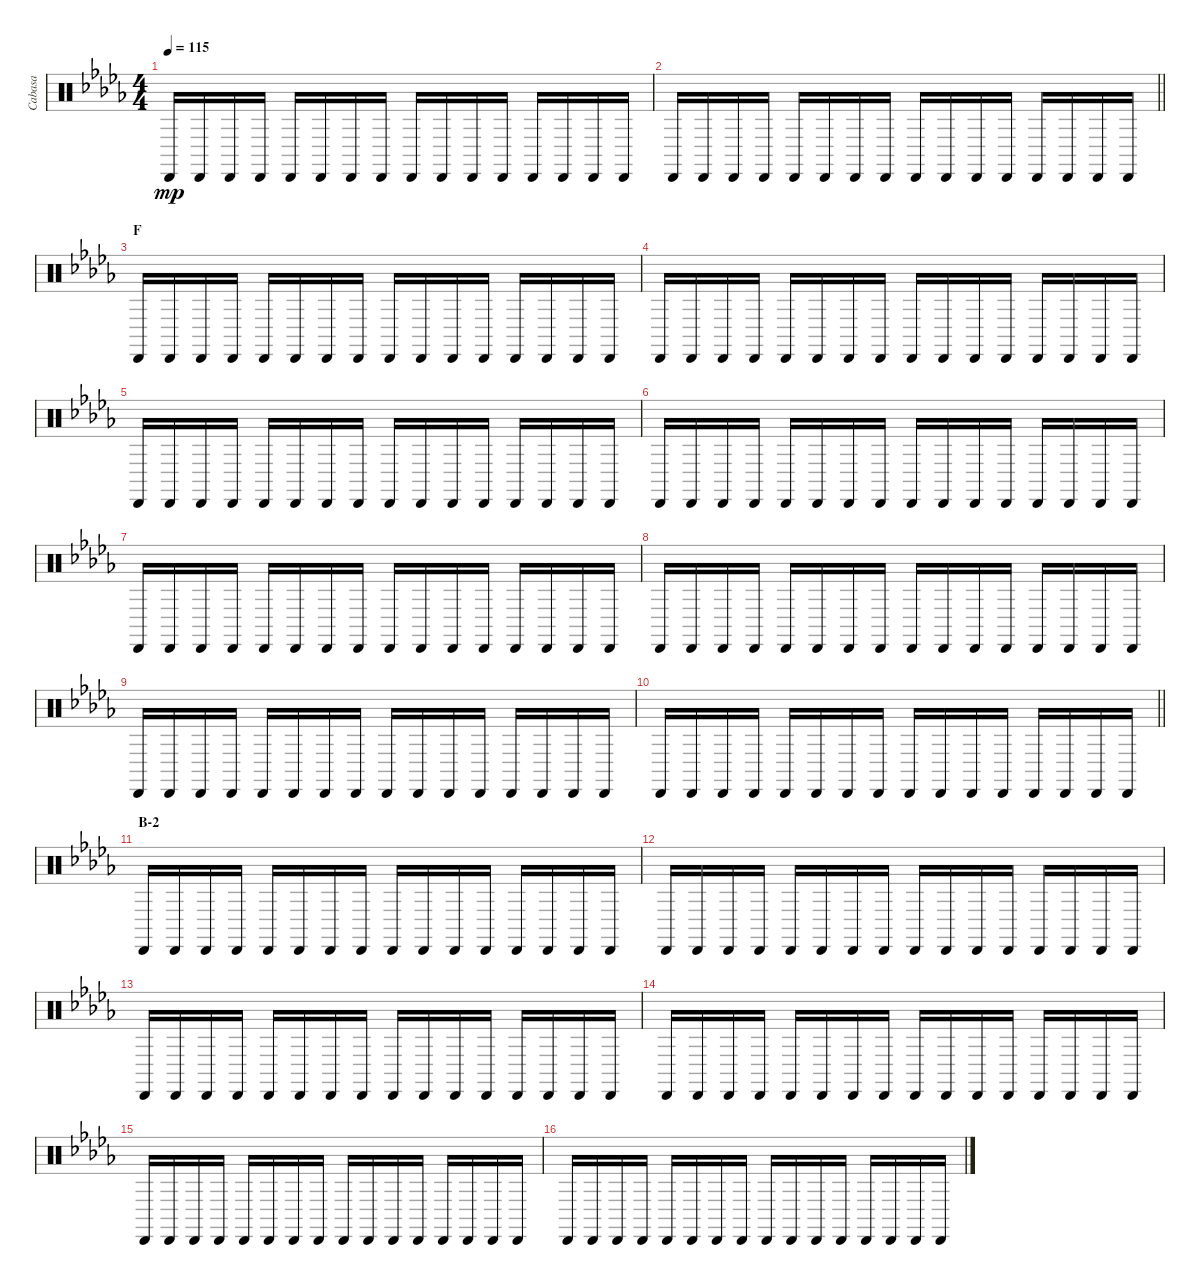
\track ("Cabasa" "Cabasa") {instrument percussion}
\staff {score}
\articulation defaults
\ts (4 4)
\tempo 115
\clef neutral
\ks db "Cabasa (hit)".16{dy mp} "Cabasa (hit)".16 "Cabasa (hit)".16 "Cabasa (hit)".16 "Cabasa (hit)".16 "Cabasa (hit)".16 "Cabasa (hit)".16 "Cabasa (hit)".16 "Cabasa (hit)".16 "Cabasa (hit)".16 "Cabasa (hit)".16 "Cabasa (hit)".16 "Cabasa (hit)".16 "Cabasa (hit)".16 "Cabasa (hit)".16 "Cabasa (hit)".16
|
\barLineRight lightlight "Cabasa (hit)".16 "Cabasa (hit)".16 "Cabasa (hit)".16 "Cabasa (hit)".16 "Cabasa (hit)".16 "Cabasa (hit)".16 "Cabasa (hit)".16 "Cabasa (hit)".16 "Cabasa (hit)".16 "Cabasa (hit)".16 "Cabasa (hit)".16 "Cabasa (hit)".16 "Cabasa (hit)".16 "Cabasa (hit)".16 "Cabasa (hit)".16 "Cabasa (hit)".16
|
\section ("" "F")
"Cabasa (hit)".16 "Cabasa (hit)".16 "Cabasa (hit)".16 "Cabasa (hit)".16 "Cabasa (hit)".16 "Cabasa (hit)".16 "Cabasa (hit)".16 "Cabasa (hit)".16 "Cabasa (hit)".16 "Cabasa (hit)".16 "Cabasa (hit)".16 "Cabasa (hit)".16 "Cabasa (hit)".16 "Cabasa (hit)".16 "Cabasa (hit)".16 "Cabasa (hit)".16 |
"Cabasa (hit)".16 "Cabasa (hit)".16 "Cabasa (hit)".16 "Cabasa (hit)".16 "Cabasa (hit)".16 "Cabasa (hit)".16 "Cabasa (hit)".16 "Cabasa (hit)".16 "Cabasa (hit)".16 "Cabasa (hit)".16 "Cabasa (hit)".16 "Cabasa (hit)".16 "Cabasa (hit)".16 "Cabasa (hit)".16 "Cabasa (hit)".16 "Cabasa (hit)".16 |
"Cabasa (hit)".16 "Cabasa (hit)".16 "Cabasa (hit)".16 "Cabasa (hit)".16 "Cabasa (hit)".16 "Cabasa (hit)".16 "Cabasa (hit)".16 "Cabasa (hit)".16 "Cabasa (hit)".16 "Cabasa (hit)".16 "Cabasa (hit)".16 "Cabasa (hit)".16 "Cabasa (hit)".16 "Cabasa (hit)".16 "Cabasa (hit)".16 "Cabasa (hit)".16 |
"Cabasa (hit)".16 "Cabasa (hit)".16 "Cabasa (hit)".16 "Cabasa (hit)".16 "Cabasa (hit)".16 "Cabasa (hit)".16 "Cabasa (hit)".16 "Cabasa (hit)".16 "Cabasa (hit)".16 "Cabasa (hit)".16 "Cabasa (hit)".16 "Cabasa (hit)".16 "Cabasa (hit)".16 "Cabasa (hit)".16 "Cabasa (hit)".16 "Cabasa (hit)".16 |
"Cabasa (hit)".16 "Cabasa (hit)".16 "Cabasa (hit)".16 "Cabasa (hit)".16 "Cabasa (hit)".16 "Cabasa (hit)".16 "Cabasa (hit)".16 "Cabasa (hit)".16 "Cabasa (hit)".16 "Cabasa (hit)".16 "Cabasa (hit)".16 "Cabasa (hit)".16 "Cabasa (hit)".16 "Cabasa (hit)".16 "Cabasa (hit)".16 "Cabasa (hit)".16 |
"Cabasa (hit)".16 "Cabasa (hit)".16 "Cabasa (hit)".16 "Cabasa (hit)".16 "Cabasa (hit)".16 "Cabasa (hit)".16 "Cabasa (hit)".16 "Cabasa (hit)".16 "Cabasa (hit)".16 "Cabasa (hit)".16 "Cabasa (hit)".16 "Cabasa (hit)".16 "Cabasa (hit)".16 "Cabasa (hit)".16 "Cabasa (hit)".16 "Cabasa (hit)".16 |
"Cabasa (hit)".16 "Cabasa (hit)".16 "Cabasa (hit)".16 "Cabasa (hit)".16 "Cabasa (hit)".16 "Cabasa (hit)".16 "Cabasa (hit)".16 "Cabasa (hit)".16 "Cabasa (hit)".16 "Cabasa (hit)".16 "Cabasa (hit)".16 "Cabasa (hit)".16 "Cabasa (hit)".16 "Cabasa (hit)".16 "Cabasa (hit)".16 "Cabasa (hit)".16 |
\barLineRight lightlight "Cabasa (hit)".16 "Cabasa (hit)".16 "Cabasa (hit)".16 "Cabasa (hit)".16 "Cabasa (hit)".16 "Cabasa (hit)".16 "Cabasa (hit)".16 "Cabasa (hit)".16 "Cabasa (hit)".16 "Cabasa (hit)".16 "Cabasa (hit)".16 "Cabasa (hit)".16 "Cabasa (hit)".16 "Cabasa (hit)".16 "Cabasa (hit)".16 "Cabasa (hit)".16
|
\section ("" "B-2")
"Cabasa (hit)".16 "Cabasa (hit)".16 "Cabasa (hit)".16 "Cabasa (hit)".16 "Cabasa (hit)".16 "Cabasa (hit)".16 "Cabasa (hit)".16 "Cabasa (hit)".16 "Cabasa (hit)".16 "Cabasa (hit)".16 "Cabasa (hit)".16 "Cabasa (hit)".16 "Cabasa (hit)".16 "Cabasa (hit)".16 "Cabasa (hit)".16 "Cabasa (hit)".16 |
"Cabasa (hit)".16 "Cabasa (hit)".16 "Cabasa (hit)".16 "Cabasa (hit)".16 "Cabasa (hit)".16 "Cabasa (hit)".16 "Cabasa (hit)".16 "Cabasa (hit)".16 "Cabasa (hit)".16 "Cabasa (hit)".16 "Cabasa (hit)".16 "Cabasa (hit)".16 "Cabasa (hit)".16 "Cabasa (hit)".16 "Cabasa (hit)".16 "Cabasa (hit)".16 |
"Cabasa (hit)".16 "Cabasa (hit)".16 "Cabasa (hit)".16 "Cabasa (hit)".16 "Cabasa (hit)".16 "Cabasa (hit)".16 "Cabasa (hit)".16 "Cabasa (hit)".16 "Cabasa (hit)".16 "Cabasa (hit)".16 "Cabasa (hit)".16 "Cabasa (hit)".16 "Cabasa (hit)".16 "Cabasa (hit)".16 "Cabasa (hit)".16 "Cabasa (hit)".16 |
"Cabasa (hit)".16 "Cabasa (hit)".16 "Cabasa (hit)".16 "Cabasa (hit)".16 "Cabasa (hit)".16 "Cabasa (hit)".16 "Cabasa (hit)".16 "Cabasa (hit)".16 "Cabasa (hit)".16 "Cabasa (hit)".16 "Cabasa (hit)".16 "Cabasa (hit)".16 "Cabasa (hit)".16 "Cabasa (hit)".16 "Cabasa (hit)".16 "Cabasa (hit)".16 |
"Cabasa (hit)".16 "Cabasa (hit)".16 "Cabasa (hit)".16 "Cabasa (hit)".16 "Cabasa (hit)".16 "Cabasa (hit)".16 "Cabasa (hit)".16 "Cabasa (hit)".16 "Cabasa (hit)".16 "Cabasa (hit)".16 "Cabasa (hit)".16 "Cabasa (hit)".16 "Cabasa (hit)".16 "Cabasa (hit)".16 "Cabasa (hit)".16 "Cabasa (hit)".16 |
"Cabasa (hit)".16 "Cabasa (hit)".16 "Cabasa (hit)".16 "Cabasa (hit)".16 "Cabasa (hit)".16 "Cabasa (hit)".16 "Cabasa (hit)".16 "Cabasa (hit)".16 "Cabasa (hit)".16 "Cabasa (hit)".16 "Cabasa (hit)".16 "Cabasa (hit)".16 "Cabasa (hit)".16 "Cabasa (hit)".16 "Cabasa (hit)".16 "Cabasa (hit)".16
